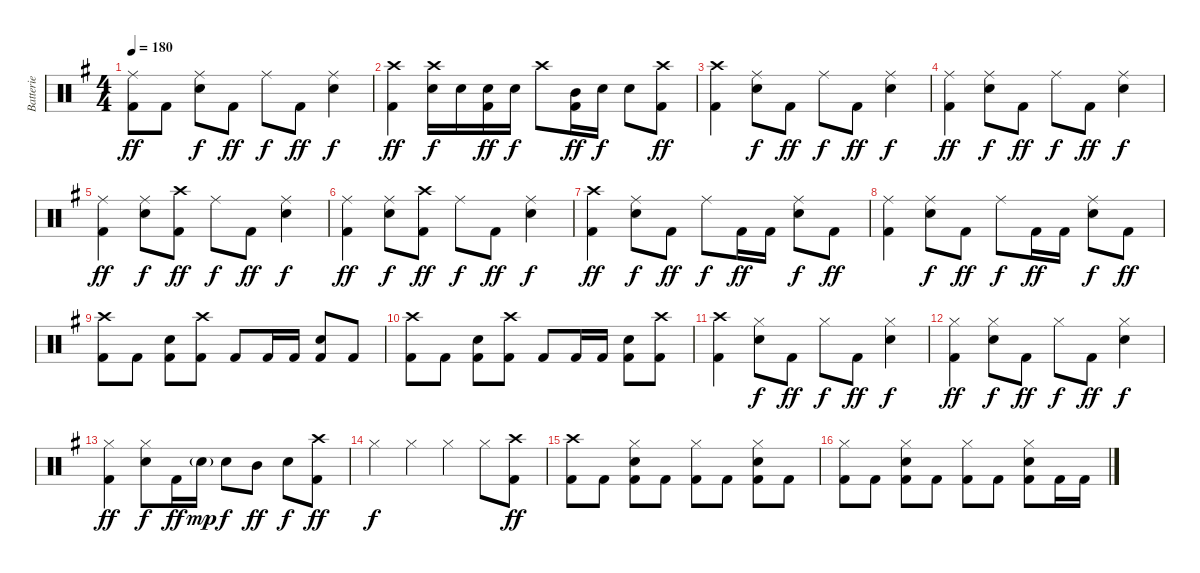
\track ("Batterie" "Batterie") {instrument percussion}
\staff {score}
\articulation defaults
\ts (4 4)
\tempo 180
\clef neutral
\ks g
("Ride (middle)" "Kick (hit) 2").8{dy ff} "Kick (hit) 2".8 ("Ride (middle)" "Snare (hit) 2").8{dy f} "Kick (hit) 2".8{dy ff} "Ride (middle)".8{dy f} "Kick (hit) 2".8{dy ff} ("Ride (middle)" "Snare (hit) 2").4{dy f} |
("Crash high (hit)" "Kick (hit) 2").4{dy ff} ("Crash high (hit)" "Snare (hit) 2").16{dy f} "Snare (hit) 2".16 ("Snare (hit) 2" "Kick (hit) 2").16{dy ff} "Snare (hit) 2".16{dy f} "Crash high (hit)".8 ("Mid Tom (hit)" "Kick (hit) 2").16{dy ff} "Snare (hit) 2".16{dy f} "Snare (hit) 2".8 ("Crash high (hit)" "Kick (hit) 2").8{dy ff} |
("Crash high (hit)" "Kick (hit) 2").4 ("Ride (middle)" "Snare (hit) 2").8{dy f} "Kick (hit) 2".8{dy ff} "Ride (middle)".8{dy f} "Kick (hit) 2".8{dy ff} ("Ride (middle)" "Snare (hit) 2").4{dy f} |
("Ride (middle)" "Kick (hit) 2").4{dy ff} ("Ride (middle)" "Snare (hit) 2").8{dy f} "Kick (hit) 2".8{dy ff} "Ride (middle)".8{dy f} "Kick (hit) 2".8{dy ff} ("Ride (middle)" "Snare (hit) 2").4{dy f} |
("Ride (middle)" "Kick (hit) 2").4{dy ff} ("Ride (middle)" "Snare (hit) 2").8{dy f} ("Crash high (hit)" "Kick (hit) 2").8{dy ff} "Ride (middle)".8{dy f} "Kick (hit) 2".8{dy ff} ("Ride (middle)" "Snare (hit) 2").4{dy f} |
("Ride (middle)" "Kick (hit) 2").4{dy ff} ("Ride (middle)" "Snare (hit) 2").8{dy f} ("Crash high (hit)" "Kick (hit) 2").8{dy ff} "Ride (middle)".8{dy f} "Kick (hit) 2".8{dy ff} ("Ride (middle)" "Snare (hit) 2").4{dy f} |
("Crash high (hit)" "Kick (hit) 2").4{dy ff} ("Ride (middle)" "Snare (hit) 2").8{dy f} "Kick (hit) 2".8{dy ff} "Ride (middle)".8{dy f} "Kick (hit) 2".16{dy ff} "Kick (hit) 2".16 ("Ride (middle)" "Snare (hit) 2").8{dy f} "Kick (hit) 2".8{dy ff} |
("Ride (middle)" "Kick (hit) 2").4 ("Ride (middle)" "Snare (hit) 2").8{dy f} "Kick (hit) 2".8{dy ff} "Ride (middle)".8{dy f} "Kick (hit) 2".16{dy ff} "Kick (hit) 2".16 ("Ride (middle)" "Snare (hit) 2").8{dy f} "Kick (hit) 2".8{dy ff} |
("Crash high (hit)" "Kick (hit) 2").8 "Kick (hit) 2".8 ("Snare (hit) 2" "Kick (hit) 2").8 ("Crash high (hit)" "Kick (hit) 2").8 "Kick (hit) 2".8 "Kick (hit) 2".16 "Kick (hit) 2".16 ("Snare (hit) 2" "Kick (hit) 2").8 "Kick (hit) 2".8 |
("Crash high (hit)" "Kick (hit) 2").8 "Kick (hit) 2".8 ("Snare (hit) 2" "Kick (hit) 2").8 ("Crash high (hit)" "Kick (hit) 2").8 "Kick (hit) 2".8 "Kick (hit) 2".16 "Kick (hit) 2".16 ("Snare (hit) 2" "Kick (hit) 2").8 ("Crash high (hit)" "Kick (hit) 2").8 |
("Crash high (hit)" "Kick (hit) 2").4 ("Hi-Hat (closed)" "Snare (hit) 2").8{dy f} "Kick (hit) 2".8{dy ff} "Hi-Hat (closed)".8{dy f} "Kick (hit) 2".8{dy ff} ("Hi-Hat (closed)" "Snare (hit) 2").4{dy f} |
("Hi-Hat (closed)" "Kick (hit) 2").4{dy ff} ("Hi-Hat (closed)" "Snare (hit) 2").8{dy f} "Kick (hit) 2".8{dy ff} "Hi-Hat (closed)".8{dy f} "Kick (hit) 2".8{dy ff} ("Hi-Hat (closed)" "Snare (hit) 2").4{dy f} |
("Hi-Hat (closed)" "Kick (hit) 2").4{dy ff} ("Hi-Hat (closed)" "Snare (hit) 2").8{dy f} "Kick (hit) 2".16{dy ff} "Snare (hit) 2"{g}.16{dy mp} "Snare (hit) 2".8{dy f} "Mid Tom (hit)".8{dy ff} "Snare (hit) 2".8{dy f} ("Crash high (hit)" "Kick (hit) 2").8{dy ff} |
"Hi-Hat (closed)".4{dy f} "Hi-Hat (closed)".4 "Hi-Hat (closed)".4 "Hi-Hat (closed)".8 ("Crash high (hit)" "Kick (hit) 2").8{dy ff} |
("Crash high (hit)" "Kick (hit) 2").8 "Kick (hit) 2".8 ("Hi-Hat (closed)" "Snare (hit) 2" "Kick (hit) 2").8 "Kick (hit) 2".8 ("Hi-Hat (closed)" "Kick (hit) 2").8 "Kick (hit) 2".8 ("Hi-Hat (closed)" "Snare (hit) 2" "Kick (hit) 2").8 "Kick (hit) 2".8 |
("Hi-Hat (closed)" "Kick (hit) 2").8 "Kick (hit) 2".8 ("Hi-Hat (closed)" "Snare (hit) 2" "Kick (hit) 2").8 "Kick (hit) 2".8 ("Hi-Hat (closed)" "Kick (hit) 2").8 "Kick (hit) 2".8 ("Hi-Hat (closed)" "Snare (hit) 2" "Kick (hit) 2").8 "Kick (hit) 2".16 "Kick (hit) 2".16
